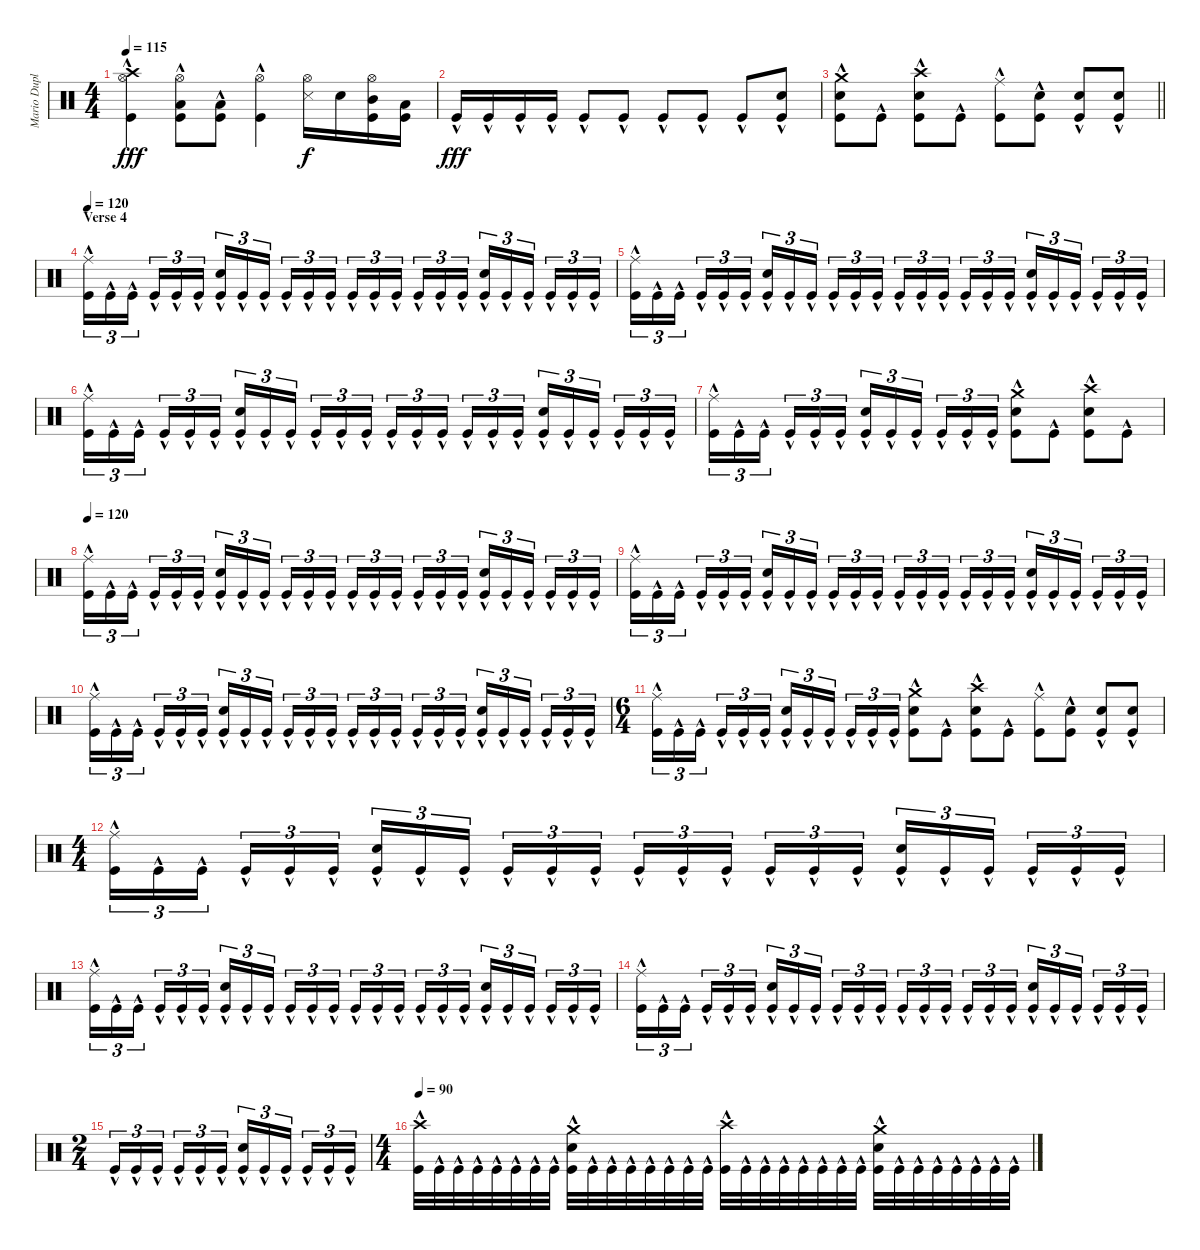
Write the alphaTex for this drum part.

\track ("Mario Duplantier" "Mario Dupl") {instrument percussion}
\staff {score}
\articulation defaults
\ts (4 4)
\tempo 115
\clef neutral
\ks c
("Crash high (hit)" "Hi-Hat (open)"{hac} "Kick (hit)"{hac}).4{dy fff} ("Hi-Hat (open)"{hac} "Low Tom (hit)" "Kick (hit)"{hac}).8 ("Low Tom (hit)" "Kick (hit)"{hac}).8 ("Hi-Hat (open)"{hac} "Kick (hit)"{hac}).4 ("Hi-Hat (open)" "Metronome (hit)").16{dy f} "Electric Snare (hit)".16 ("Hi-Hat (open)" "Mid Tom (hit)" "Kick (hit)").16 ("Low Tom (hit)" "Kick (hit)").16 |
"Kick (hit)"{hac}.16{dy fff} "Kick (hit)"{hac}.16 "Kick (hit)"{hac}.16 "Kick (hit)"{hac}.16 "Kick (hit)"{hac}.8 "Kick (hit)"{hac}.8 "Kick (hit)"{hac}.8 "Kick (hit)"{hac}.8 "Kick (hit)"{hac}.8 ("Electric Snare (hit)" "Kick (hit)"{hac}).8 |
\barLineRight lightlight
("Crash medium (hit)" "Electric Snare (hit)" "Kick (hit)"{hac}).8 "Kick (hit)"{hac}.8 ("Crash high (hit)" "Electric Snare (hit)" "Kick (hit)"{hac}).8 "Kick (hit)"{hac}.8 ("Ride (middle)" "Kick (hit)"{hac}).8 ("Electric Snare (hit)" "Kick (hit)"{hac}).8 ("Electric Snare (hit)" "Kick (hit)"{hac}).8 ("Electric Snare (hit)" "Kick (hit)"{hac}).8 |
\section ("" "Verse 4")
\tempo 120
("Ride (middle)" "Kick (hit)"{hac}).16{tu (3 2)} "Kick (hit)"{hac}.16{tu (3 2)} "Kick (hit)"{hac}.16{tu (3 2) beam splitsecondary} "Kick (hit)"{hac}.16{tu (3 2)} "Kick (hit)"{hac}.16{tu (3 2)} "Kick (hit)"{hac}.16{tu (3 2)} ("Electric Snare (hit)" "Kick (hit)"{hac}).16{tu (3 2)} "Kick (hit)"{hac}.16{tu (3 2)} "Kick (hit)"{hac}.16{tu (3 2) beam splitsecondary} "Kick (hit)"{hac}.16{tu (3 2)} "Kick (hit)"{hac}.16{tu (3 2)} "Kick (hit)"{hac}.16{tu (3 2)} "Kick (hit)"{hac}.16{tu (3 2)} "Kick (hit)"{hac}.16{tu (3 2)} "Kick (hit)"{hac}.16{tu (3 2) beam splitsecondary} "Kick (hit)"{hac}.16{tu (3 2)} "Kick (hit)"{hac}.16{tu (3 2)} "Kick (hit)"{hac}.16{tu (3 2)} ("Electric Snare (hit)" "Kick (hit)"{hac}).16{tu (3 2)} "Kick (hit)"{hac}.16{tu (3 2)} "Kick (hit)"{hac}.16{tu (3 2) beam splitsecondary} "Kick (hit)"{hac}.16{tu (3 2)} "Kick (hit)"{hac}.16{tu (3 2)} "Kick (hit)"{hac}.16{tu (3 2)} |
("Ride (middle)" "Kick (hit)"{hac}).16{tu (3 2)} "Kick (hit)"{hac}.16{tu (3 2)} "Kick (hit)"{hac}.16{tu (3 2) beam splitsecondary} "Kick (hit)"{hac}.16{tu (3 2)} "Kick (hit)"{hac}.16{tu (3 2)} "Kick (hit)"{hac}.16{tu (3 2)} ("Electric Snare (hit)" "Kick (hit)"{hac}).16{tu (3 2)} "Kick (hit)"{hac}.16{tu (3 2)} "Kick (hit)"{hac}.16{tu (3 2) beam splitsecondary} "Kick (hit)"{hac}.16{tu (3 2)} "Kick (hit)"{hac}.16{tu (3 2)} "Kick (hit)"{hac}.16{tu (3 2)} "Kick (hit)"{hac}.16{tu (3 2)} "Kick (hit)"{hac}.16{tu (3 2)} "Kick (hit)"{hac}.16{tu (3 2) beam splitsecondary} "Kick (hit)"{hac}.16{tu (3 2)} "Kick (hit)"{hac}.16{tu (3 2)} "Kick (hit)"{hac}.16{tu (3 2)} ("Electric Snare (hit)" "Kick (hit)"{hac}).16{tu (3 2)} "Kick (hit)"{hac}.16{tu (3 2)} "Kick (hit)"{hac}.16{tu (3 2) beam splitsecondary} "Kick (hit)"{hac}.16{tu (3 2)} "Kick (hit)"{hac}.16{tu (3 2)} "Kick (hit)"{hac}.16{tu (3 2)} |
("Ride (middle)" "Kick (hit)"{hac}).16{tu (3 2)} "Kick (hit)"{hac}.16{tu (3 2)} "Kick (hit)"{hac}.16{tu (3 2) beam splitsecondary} "Kick (hit)"{hac}.16{tu (3 2)} "Kick (hit)"{hac}.16{tu (3 2)} "Kick (hit)"{hac}.16{tu (3 2)} ("Electric Snare (hit)" "Kick (hit)"{hac}).16{tu (3 2)} "Kick (hit)"{hac}.16{tu (3 2)} "Kick (hit)"{hac}.16{tu (3 2) beam splitsecondary} "Kick (hit)"{hac}.16{tu (3 2)} "Kick (hit)"{hac}.16{tu (3 2)} "Kick (hit)"{hac}.16{tu (3 2)} "Kick (hit)"{hac}.16{tu (3 2)} "Kick (hit)"{hac}.16{tu (3 2)} "Kick (hit)"{hac}.16{tu (3 2) beam splitsecondary} "Kick (hit)"{hac}.16{tu (3 2)} "Kick (hit)"{hac}.16{tu (3 2)} "Kick (hit)"{hac}.16{tu (3 2)} ("Electric Snare (hit)" "Kick (hit)"{hac}).16{tu (3 2)} "Kick (hit)"{hac}.16{tu (3 2)} "Kick (hit)"{hac}.16{tu (3 2) beam splitsecondary} "Kick (hit)"{hac}.16{tu (3 2)} "Kick (hit)"{hac}.16{tu (3 2)} "Kick (hit)"{hac}.16{tu (3 2)} |
("Ride (middle)" "Kick (hit)"{hac}).16{tu (3 2)} "Kick (hit)"{hac}.16{tu (3 2)} "Kick (hit)"{hac}.16{tu (3 2) beam splitsecondary} "Kick (hit)"{hac}.16{tu (3 2)} "Kick (hit)"{hac}.16{tu (3 2)} "Kick (hit)"{hac}.16{tu (3 2)} ("Electric Snare (hit)" "Kick (hit)"{hac}).16{tu (3 2)} "Kick (hit)"{hac}.16{tu (3 2)} "Kick (hit)"{hac}.16{tu (3 2) beam splitsecondary} "Kick (hit)"{hac}.16{tu (3 2)} "Kick (hit)"{hac}.16{tu (3 2)} "Kick (hit)"{hac}.16{tu (3 2)} ("Crash medium (hit)" "Electric Snare (hit)" "Kick (hit)"{hac}).8 "Kick (hit)"{hac}.8 ("Crash high (hit)" "Electric Snare (hit)" "Kick (hit)"{hac}).8 "Kick (hit)"{hac}.8 |
\tempo 120
("Ride (middle)" "Kick (hit)"{hac}).16{tu (3 2)} "Kick (hit)"{hac}.16{tu (3 2)} "Kick (hit)"{hac}.16{tu (3 2) beam splitsecondary} "Kick (hit)"{hac}.16{tu (3 2)} "Kick (hit)"{hac}.16{tu (3 2)} "Kick (hit)"{hac}.16{tu (3 2)} ("Electric Snare (hit)" "Kick (hit)"{hac}).16{tu (3 2)} "Kick (hit)"{hac}.16{tu (3 2)} "Kick (hit)"{hac}.16{tu (3 2) beam splitsecondary} "Kick (hit)"{hac}.16{tu (3 2)} "Kick (hit)"{hac}.16{tu (3 2)} "Kick (hit)"{hac}.16{tu (3 2)} "Kick (hit)"{hac}.16{tu (3 2)} "Kick (hit)"{hac}.16{tu (3 2)} "Kick (hit)"{hac}.16{tu (3 2) beam splitsecondary} "Kick (hit)"{hac}.16{tu (3 2)} "Kick (hit)"{hac}.16{tu (3 2)} "Kick (hit)"{hac}.16{tu (3 2)} ("Electric Snare (hit)" "Kick (hit)"{hac}).16{tu (3 2)} "Kick (hit)"{hac}.16{tu (3 2)} "Kick (hit)"{hac}.16{tu (3 2) beam splitsecondary} "Kick (hit)"{hac}.16{tu (3 2)} "Kick (hit)"{hac}.16{tu (3 2)} "Kick (hit)"{hac}.16{tu (3 2)} |
("Ride (middle)" "Kick (hit)"{hac}).16{tu (3 2)} "Kick (hit)"{hac}.16{tu (3 2)} "Kick (hit)"{hac}.16{tu (3 2) beam splitsecondary} "Kick (hit)"{hac}.16{tu (3 2)} "Kick (hit)"{hac}.16{tu (3 2)} "Kick (hit)"{hac}.16{tu (3 2)} ("Electric Snare (hit)" "Kick (hit)"{hac}).16{tu (3 2)} "Kick (hit)"{hac}.16{tu (3 2)} "Kick (hit)"{hac}.16{tu (3 2) beam splitsecondary} "Kick (hit)"{hac}.16{tu (3 2)} "Kick (hit)"{hac}.16{tu (3 2)} "Kick (hit)"{hac}.16{tu (3 2)} "Kick (hit)"{hac}.16{tu (3 2)} "Kick (hit)"{hac}.16{tu (3 2)} "Kick (hit)"{hac}.16{tu (3 2) beam splitsecondary} "Kick (hit)"{hac}.16{tu (3 2)} "Kick (hit)"{hac}.16{tu (3 2)} "Kick (hit)"{hac}.16{tu (3 2)} ("Electric Snare (hit)" "Kick (hit)"{hac}).16{tu (3 2)} "Kick (hit)"{hac}.16{tu (3 2)} "Kick (hit)"{hac}.16{tu (3 2) beam splitsecondary} "Kick (hit)"{hac}.16{tu (3 2)} "Kick (hit)"{hac}.16{tu (3 2)} "Kick (hit)"{hac}.16{tu (3 2)} |
("Ride (middle)" "Kick (hit)"{hac}).16{tu (3 2)} "Kick (hit)"{hac}.16{tu (3 2)} "Kick (hit)"{hac}.16{tu (3 2) beam splitsecondary} "Kick (hit)"{hac}.16{tu (3 2)} "Kick (hit)"{hac}.16{tu (3 2)} "Kick (hit)"{hac}.16{tu (3 2)} ("Electric Snare (hit)" "Kick (hit)"{hac}).16{tu (3 2)} "Kick (hit)"{hac}.16{tu (3 2)} "Kick (hit)"{hac}.16{tu (3 2) beam splitsecondary} "Kick (hit)"{hac}.16{tu (3 2)} "Kick (hit)"{hac}.16{tu (3 2)} "Kick (hit)"{hac}.16{tu (3 2)} "Kick (hit)"{hac}.16{tu (3 2)} "Kick (hit)"{hac}.16{tu (3 2)} "Kick (hit)"{hac}.16{tu (3 2) beam splitsecondary} "Kick (hit)"{hac}.16{tu (3 2)} "Kick (hit)"{hac}.16{tu (3 2)} "Kick (hit)"{hac}.16{tu (3 2)} ("Electric Snare (hit)" "Kick (hit)"{hac}).16{tu (3 2)} "Kick (hit)"{hac}.16{tu (3 2)} "Kick (hit)"{hac}.16{tu (3 2) beam splitsecondary} "Kick (hit)"{hac}.16{tu (3 2)} "Kick (hit)"{hac}.16{tu (3 2)} "Kick (hit)"{hac}.16{tu (3 2)} |
\ts (6 4)
("Ride (middle)" "Kick (hit)"{hac}).16{tu (3 2)} "Kick (hit)"{hac}.16{tu (3 2)} "Kick (hit)"{hac}.16{tu (3 2) beam splitsecondary} "Kick (hit)"{hac}.16{tu (3 2)} "Kick (hit)"{hac}.16{tu (3 2)} "Kick (hit)"{hac}.16{tu (3 2) beam splitsecondary} ("Electric Snare (hit)" "Kick (hit)"{hac}).16{tu (3 2)} "Kick (hit)"{hac}.16{tu (3 2)} "Kick (hit)"{hac}.16{tu (3 2) beam splitsecondary} "Kick (hit)"{hac}.16{tu (3 2)} "Kick (hit)"{hac}.16{tu (3 2)} "Kick (hit)"{hac}.16{tu (3 2)} ("Crash medium (hit)" "Electric Snare (hit)" "Kick (hit)"{hac}).8 "Kick (hit)"{hac}.8 ("Crash high (hit)" "Electric Snare (hit)" "Kick (hit)"{hac}).8 "Kick (hit)"{hac}.8 ("Ride (middle)" "Kick (hit)"{hac}).8 ("Electric Snare (hit)" "Kick (hit)"{hac}).8 ("Electric Snare (hit)" "Kick (hit)"{hac}).8 ("Electric Snare (hit)" "Kick (hit)"{hac}).8 |
\ts (4 4)
("Ride (middle)" "Kick (hit)"{hac}).16{tu (3 2)} "Kick (hit)"{hac}.16{tu (3 2)} "Kick (hit)"{hac}.16{tu (3 2) beam splitsecondary} "Kick (hit)"{hac}.16{tu (3 2)} "Kick (hit)"{hac}.16{tu (3 2)} "Kick (hit)"{hac}.16{tu (3 2)} ("Electric Snare (hit)" "Kick (hit)"{hac}).16{tu (3 2)} "Kick (hit)"{hac}.16{tu (3 2)} "Kick (hit)"{hac}.16{tu (3 2) beam splitsecondary} "Kick (hit)"{hac}.16{tu (3 2)} "Kick (hit)"{hac}.16{tu (3 2)} "Kick (hit)"{hac}.16{tu (3 2)} "Kick (hit)"{hac}.16{tu (3 2)} "Kick (hit)"{hac}.16{tu (3 2)} "Kick (hit)"{hac}.16{tu (3 2) beam splitsecondary} "Kick (hit)"{hac}.16{tu (3 2)} "Kick (hit)"{hac}.16{tu (3 2)} "Kick (hit)"{hac}.16{tu (3 2)} ("Electric Snare (hit)" "Kick (hit)"{hac}).16{tu (3 2)} "Kick (hit)"{hac}.16{tu (3 2)} "Kick (hit)"{hac}.16{tu (3 2) beam splitsecondary} "Kick (hit)"{hac}.16{tu (3 2)} "Kick (hit)"{hac}.16{tu (3 2)} "Kick (hit)"{hac}.16{tu (3 2)} |
("Ride (middle)" "Kick (hit)"{hac}).16{tu (3 2)} "Kick (hit)"{hac}.16{tu (3 2)} "Kick (hit)"{hac}.16{tu (3 2) beam splitsecondary} "Kick (hit)"{hac}.16{tu (3 2)} "Kick (hit)"{hac}.16{tu (3 2)} "Kick (hit)"{hac}.16{tu (3 2)} ("Electric Snare (hit)" "Kick (hit)"{hac}).16{tu (3 2)} "Kick (hit)"{hac}.16{tu (3 2)} "Kick (hit)"{hac}.16{tu (3 2) beam splitsecondary} "Kick (hit)"{hac}.16{tu (3 2)} "Kick (hit)"{hac}.16{tu (3 2)} "Kick (hit)"{hac}.16{tu (3 2)} "Kick (hit)"{hac}.16{tu (3 2)} "Kick (hit)"{hac}.16{tu (3 2)} "Kick (hit)"{hac}.16{tu (3 2) beam splitsecondary} "Kick (hit)"{hac}.16{tu (3 2)} "Kick (hit)"{hac}.16{tu (3 2)} "Kick (hit)"{hac}.16{tu (3 2)} ("Electric Snare (hit)" "Kick (hit)"{hac}).16{tu (3 2)} "Kick (hit)"{hac}.16{tu (3 2)} "Kick (hit)"{hac}.16{tu (3 2) beam splitsecondary} "Kick (hit)"{hac}.16{tu (3 2)} "Kick (hit)"{hac}.16{tu (3 2)} "Kick (hit)"{hac}.16{tu (3 2)} |
("Ride (middle)" "Kick (hit)"{hac}).16{tu (3 2)} "Kick (hit)"{hac}.16{tu (3 2)} "Kick (hit)"{hac}.16{tu (3 2) beam splitsecondary} "Kick (hit)"{hac}.16{tu (3 2)} "Kick (hit)"{hac}.16{tu (3 2)} "Kick (hit)"{hac}.16{tu (3 2)} ("Electric Snare (hit)" "Kick (hit)"{hac}).16{tu (3 2)} "Kick (hit)"{hac}.16{tu (3 2)} "Kick (hit)"{hac}.16{tu (3 2) beam splitsecondary} "Kick (hit)"{hac}.16{tu (3 2)} "Kick (hit)"{hac}.16{tu (3 2)} "Kick (hit)"{hac}.16{tu (3 2)} "Kick (hit)"{hac}.16{tu (3 2)} "Kick (hit)"{hac}.16{tu (3 2)} "Kick (hit)"{hac}.16{tu (3 2) beam splitsecondary} "Kick (hit)"{hac}.16{tu (3 2)} "Kick (hit)"{hac}.16{tu (3 2)} "Kick (hit)"{hac}.16{tu (3 2)} ("Electric Snare (hit)" "Kick (hit)"{hac}).16{tu (3 2)} "Kick (hit)"{hac}.16{tu (3 2)} "Kick (hit)"{hac}.16{tu (3 2) beam splitsecondary} "Kick (hit)"{hac}.16{tu (3 2)} "Kick (hit)"{hac}.16{tu (3 2)} "Kick (hit)"{hac}.16{tu (3 2)} |
\ts (2 4)
"Kick (hit)"{hac}.16{tu (3 2)} "Kick (hit)"{hac}.16{tu (3 2)} "Kick (hit)"{hac}.16{tu (3 2) beam splitsecondary} "Kick (hit)"{hac}.16{tu (3 2)} "Kick (hit)"{hac}.16{tu (3 2)} "Kick (hit)"{hac}.16{tu (3 2)} ("Electric Snare (hit)" "Kick (hit)"{hac}).16{tu (3 2)} "Kick (hit)"{hac}.16{tu (3 2)} "Kick (hit)"{hac}.16{tu (3 2) beam splitsecondary} "Kick (hit)"{hac}.16{tu (3 2)} "Kick (hit)"{hac}.16{tu (3 2)} "Kick (hit)"{hac}.16{tu (3 2)} |
\ts (4 4)
\tempo 90
("Crash high (hit)" "Kick (hit)"{hac}).32 "Kick (hit)"{hac}.32 "Kick (hit)"{hac}.32 "Kick (hit)"{hac}.32 "Kick (hit)"{hac}.32 "Kick (hit)"{hac}.32 "Kick (hit)"{hac}.32 "Kick (hit)"{hac}.32 ("Crash medium (hit)" "Electric Snare (hit)" "Kick (hit)"{hac}).32 "Kick (hit)"{hac}.32 "Kick (hit)"{hac}.32 "Kick (hit)"{hac}.32 "Kick (hit)"{hac}.32 "Kick (hit)"{hac}.32 "Kick (hit)"{hac}.32 "Kick (hit)"{hac}.32 ("Crash high (hit)" "Kick (hit)"{hac}).32 "Kick (hit)"{hac}.32 "Kick (hit)"{hac}.32 "Kick (hit)"{hac}.32 "Kick (hit)"{hac}.32 "Kick (hit)"{hac}.32 "Kick (hit)"{hac}.32 "Kick (hit)"{hac}.32 ("Crash medium (hit)" "Electric Snare (hit)" "Kick (hit)"{hac}).32 "Kick (hit)"{hac}.32 "Kick (hit)"{hac}.32 "Kick (hit)"{hac}.32 "Kick (hit)"{hac}.32 "Kick (hit)"{hac}.32 "Kick (hit)"{hac}.32 "Kick (hit)"{hac}.32
